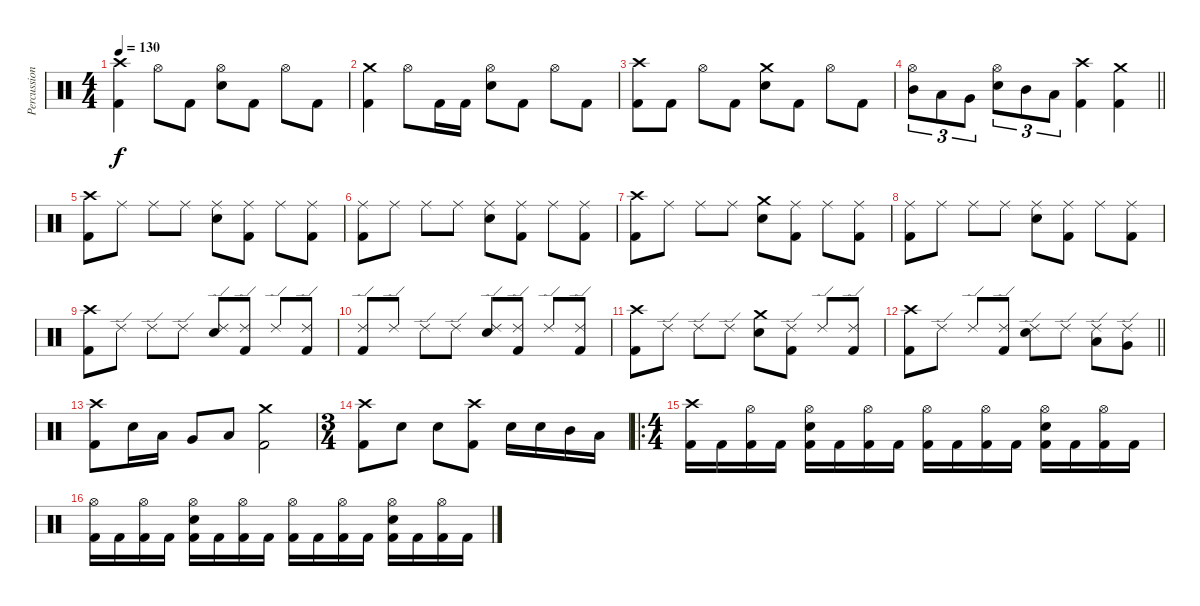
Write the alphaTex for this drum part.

\track ("Percussion" "Percussion") {instrument percussion}
\staff {score}
\articulation defaults
\ts (4 4)
\tempo 130
\clef neutral
\ks c
("Crash high (hit)" "Kick (hit) 2").4{dy f} "Hi-Hat (open)".8 "Kick (hit) 2".8 ("Hi-Hat (open)" "Electric Snare (hit)").8 "Kick (hit) 2".8 "Hi-Hat (open)".8 "Kick (hit) 2".8 |
("Crash medium (hit)" "Kick (hit) 2").4 "Hi-Hat (open)".8 "Kick (hit) 2".16 "Kick (hit) 2".16 ("Hi-Hat (open)" "Electric Snare (hit)").8 "Kick (hit) 2".8 "Hi-Hat (open)".8 "Kick (hit) 2".8 |
("Crash high (hit)" "Kick (hit) 2").8 "Kick (hit) 2".8 "Hi-Hat (open)".8 "Kick (hit) 2".8 ("Crash medium (hit)" "Electric Snare (hit)").8 "Kick (hit) 2".8 "Hi-Hat (open)".8 "Kick (hit) 2".8 |
\barLineRight lightlight
("Hi-Hat (open)" "Mid Tom (hit)").8{tu (3 2)} "Low Tom (hit)".8{tu (3 2)} "Very Low Tom (hit)".8{tu (3 2)} ("Hi-Hat (open)" "Electric Snare (hit)").8{tu (3 2)} "Mid Tom (hit)".8{tu (3 2)} "Low Tom (hit)".8{tu (3 2)} ("Crash high (hit)" "Kick (hit) 2").4 ("Crash medium (hit)" "Kick (hit) 2").4 |
("Crash high (hit)" "Kick (hit) 2").8 "Ride (middle)".8 "Ride (middle)".8 "Ride (middle)".8 ("Ride (middle)" "Electric Snare (hit)").8 ("Ride (middle)" "Kick (hit) 2").8 "Ride (middle)".8 ("Ride (middle)" "Kick (hit) 2").8 |
("Ride (middle)" "Kick (hit) 2").8 "Ride (middle)".8 "Ride (middle)".8 "Ride (middle)".8 ("Ride (middle)" "Electric Snare (hit)").8 ("Ride (middle)" "Kick (hit) 2").8 "Ride (middle)".8 ("Ride (middle)" "Kick (hit) 2").8 |
("Crash high (hit)" "Kick (hit) 2").8 "Ride (middle)".8 "Ride (middle)".8 "Ride (middle)".8 ("Crash medium (hit)" "Electric Snare (hit)").8 ("Ride (middle)" "Kick (hit) 2").8 "Ride (middle)".8 ("Ride (middle)" "Kick (hit) 2").8 |
("Ride (middle)" "Kick (hit) 2").8 "Ride (middle)".8 "Ride (middle)".8 "Ride (middle)".8 ("Ride (middle)" "Electric Snare (hit)").8 ("Ride (middle)" "Kick (hit) 2").8 "Ride (middle)".8 ("Ride (middle)" "Kick (hit) 2").8 |
("Crash high (hit)" "Kick (hit) 2").8 "Ride (edge) 2".8 "Ride (edge) 2".8 "Ride (edge) 2".8 ("Ride (edge) 2" "Electric Snare (hit)").8 ("Ride (edge) 2" "Kick (hit) 2").8 "Ride (edge) 2".8 ("Ride (edge) 2" "Kick (hit) 2").8 |
("Ride (edge) 2" "Kick (hit) 2").8 "Ride (edge) 2".8 "Ride (edge) 2".8 "Ride (edge) 2".8 ("Ride (edge) 2" "Electric Snare (hit)").8 ("Ride (edge) 2" "Kick (hit) 2").8 "Ride (edge) 2".8 ("Ride (edge) 2" "Kick (hit) 2").8 |
("Crash high (hit)" "Kick (hit) 2").8 "Ride (edge) 2".8 "Ride (edge) 2".8 "Ride (edge) 2".8 ("Crash medium (hit)" "Electric Snare (hit)").8 ("Ride (edge) 2" "Kick (hit) 2").8 "Ride (edge) 2".8 ("Ride (edge) 2" "Kick (hit) 2").8 |
\barLineRight lightlight
("Crash high (hit)" "Kick (hit) 2").8 "Ride (edge) 2".8 "Ride (edge) 2".8 ("Ride (edge) 2" "Kick (hit) 2").8 ("Ride (edge) 2" "Electric Snare (hit)").8 "Ride (edge) 2".8 ("Ride (edge) 2" "Low Tom (hit)").8 ("Ride (edge) 2" "Very Low Tom (hit)").8 |
("Crash high (hit)" "Kick (hit) 2").8 "Electric Snare (hit)".16 "Low Tom (hit)".16 "Very Low Tom (hit)".8 "Low Floor Tom (hit)".8 ("Crash medium (hit)" "Kick (hit) 2").2 |
\ts (3 4)
("Crash high (hit)" "Kick (hit) 2").8 "Electric Snare (hit)".8 "Electric Snare (hit)".8 ("Crash high (hit)" "Kick (hit) 2").8 "Electric Snare (hit)".16 "Electric Snare (hit)".16 "Mid Tom (hit)".16 "Low Tom (hit)".16 |
\ro
\ts (4 4)
("Crash high (hit)" "Kick (hit) 2").16 "Kick (hit) 2".16 ("Hi-Hat (open)" "Kick (hit) 2").16 "Kick (hit) 2".16 ("Hi-Hat (open)" "Electric Snare (hit)" "Kick (hit) 2").16 "Kick (hit) 2".16 ("Hi-Hat (open)" "Kick (hit) 2").16 "Kick (hit) 2".16 ("Hi-Hat (open)" "Kick (hit) 2").16 "Kick (hit) 2".16 ("Hi-Hat (open)" "Kick (hit) 2").16 "Kick (hit) 2".16 ("Hi-Hat (open)" "Electric Snare (hit)" "Kick (hit) 2").16 "Kick (hit) 2".16 ("Hi-Hat (open)" "Kick (hit) 2").16 "Kick (hit) 2".16 |
("Hi-Hat (open)" "Kick (hit) 2").16 "Kick (hit) 2".16 ("Hi-Hat (open)" "Kick (hit) 2").16 "Kick (hit) 2".16 ("Hi-Hat (open)" "Electric Snare (hit)" "Kick (hit) 2").16 "Kick (hit) 2".16 ("Hi-Hat (open)" "Kick (hit) 2").16 "Kick (hit) 2".16 ("Hi-Hat (open)" "Kick (hit) 2").16 "Kick (hit) 2".16 ("Hi-Hat (open)" "Kick (hit) 2").16 "Kick (hit) 2".16 ("Hi-Hat (open)" "Electric Snare (hit)" "Kick (hit) 2").16 "Kick (hit) 2".16 ("Hi-Hat (open)" "Kick (hit) 2").16 "Kick (hit) 2".16
